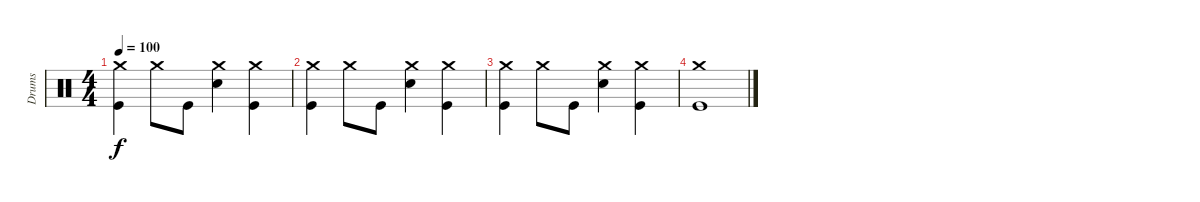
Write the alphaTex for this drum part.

\track ("Drums" "Drums") {instrument percussion}
\staff {score}
\articulation defaults
\ts (4 4)
\tempo 100
\clef neutral
\ks c
("Crash medium (hit)" "Kick (hit)").4{dy f} "Crash medium (hit)".8 "Kick (hit)".8 ("Crash medium (hit)" "Snare (hit) 2").4 ("Crash medium (hit)" "Kick (hit)").4 |
("Crash medium (hit)" "Kick (hit)").4 "Crash medium (hit)".8 "Kick (hit)".8 ("Crash medium (hit)" "Snare (hit) 2").4 ("Crash medium (hit)" "Kick (hit)").4 |
("Crash medium (hit)" "Kick (hit)").4 "Crash medium (hit)".8 "Kick (hit)".8 ("Crash medium (hit)" "Snare (hit) 2").4 ("Crash medium (hit)" "Kick (hit)").4 |
("Crash medium (hit)" "Kick (hit)").1
